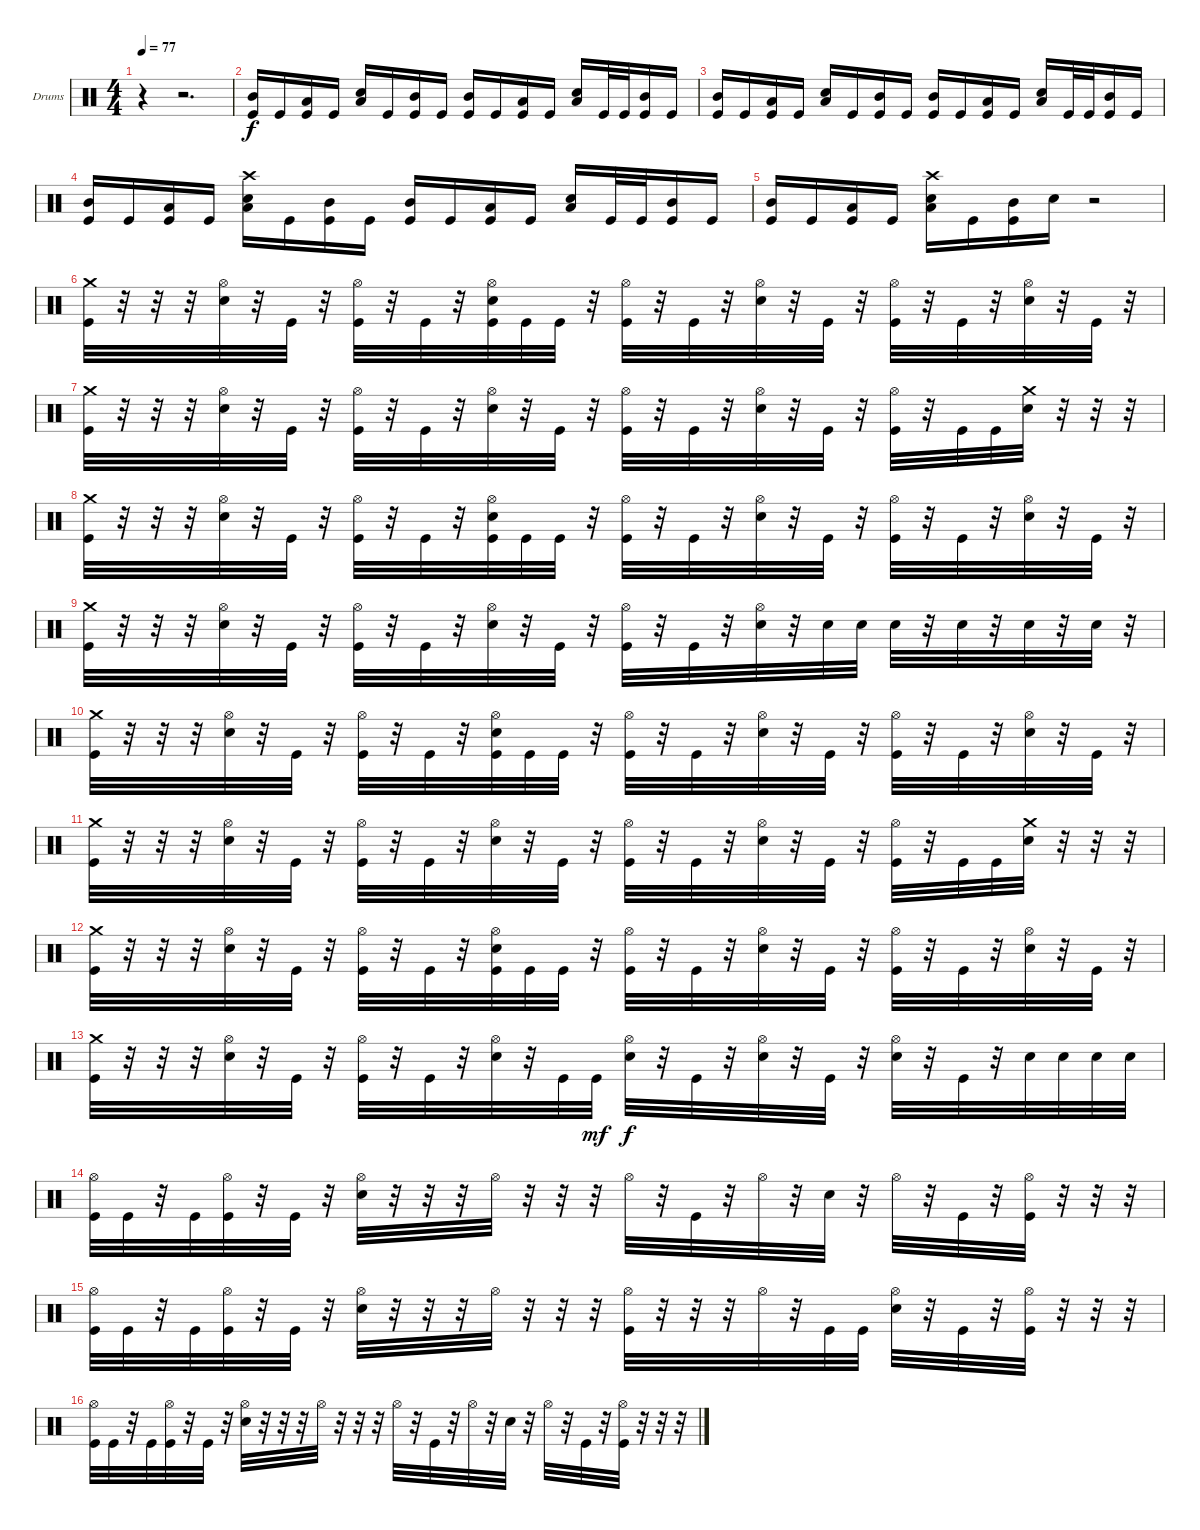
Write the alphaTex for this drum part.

\defaultSystemsLayout 4
\bracketExtendMode groupsimilarinstruments
\firstSystemTrackNameOrientation horizontal
\otherSystemsTrackNameOrientation horizontal
\track ("Drumkit" "Drums") {instrument percussion}
\staff {score}
\articulation defaults
\ts (4 4)
\tempo 77
\clef neutral
\ks c
r.4{dy f} r.2{d} |
("Mid Tom (hit)" "Kick (hit)").16 "Kick (hit)".16 ("Low Tom (hit)" "Kick (hit)").16 "Kick (hit)".16 ("Low Tom (hit)" "Snare (hit) 2").16 "Kick (hit)".16 ("Mid Tom (hit)" "Kick (hit)").16 "Kick (hit)".16 ("Mid Tom (hit)" "Kick (hit)").16 "Kick (hit)".16 ("Low Tom (hit)" "Kick (hit)").16 "Kick (hit)".16 ("Low Tom (hit)" "Snare (hit) 2").16 "Kick (hit)".32 "Kick (hit)".32 ("Mid Tom (hit)" "Kick (hit)").16 "Kick (hit)".16 |
("Mid Tom (hit)" "Kick (hit)").16 "Kick (hit)".16 ("Low Tom (hit)" "Kick (hit)").16 "Kick (hit)".16 ("Low Tom (hit)" "Snare (hit) 2").16 "Kick (hit)".16 ("Mid Tom (hit)" "Kick (hit)").16 "Kick (hit)".16 ("Mid Tom (hit)" "Kick (hit)").16 "Kick (hit)".16 ("Low Tom (hit)" "Kick (hit)").16 "Kick (hit)".16 ("Low Tom (hit)" "Snare (hit) 2").16 "Kick (hit)".32 "Kick (hit)".32 ("Mid Tom (hit)" "Kick (hit)").16 "Kick (hit)".16 |
("Mid Tom (hit)" "Kick (hit)").16 "Kick (hit)".16 ("Low Tom (hit)" "Kick (hit)").16 "Kick (hit)".16 ("Low Tom (hit)" "Snare (hit) 2" "Crash high (hit)").16 "Kick (hit)".16 ("Mid Tom (hit)" "Kick (hit)").16 "Kick (hit)".16 ("Mid Tom (hit)" "Kick (hit)").16 "Kick (hit)".16 ("Low Tom (hit)" "Kick (hit)").16 "Kick (hit)".16 ("Low Tom (hit)" "Snare (hit) 2").16 "Kick (hit)".32 "Kick (hit)".32 ("Mid Tom (hit)" "Kick (hit)").16 "Kick (hit)".16 |
("Mid Tom (hit)" "Kick (hit)").16 "Kick (hit)".16 ("Low Tom (hit)" "Kick (hit)").16 "Kick (hit)".16 ("Low Tom (hit)" "Snare (hit) 2" "Crash high (hit)").16 "Kick (hit)".16 ("Mid Tom (hit)" "Kick (hit)").16 "Snare (hit) 2".16 r.2 |
("Crash medium (hit)" "Kick (hit)").32 r.32 r.32 r.32 ("Hi-Hat (open)" "Snare (hit) 2").32 r.32 "Kick (hit)".32 r.32 ("Hi-Hat (open)" "Kick (hit)").32 r.32 "Kick (hit)".32 r.32 ("Hi-Hat (open)" "Snare (hit) 2" "Kick (hit)").32 "Kick (hit)".32 "Kick (hit)".32 r.32 ("Hi-Hat (open)" "Kick (hit)").32 r.32 "Kick (hit)".32 r.32 ("Hi-Hat (open)" "Snare (hit) 2").32 r.32 "Kick (hit)".32 r.32 ("Hi-Hat (open)" "Kick (hit)").32 r.32 "Kick (hit)".32 r.32 ("Hi-Hat (open)" "Snare (hit) 2").32 r.32 "Kick (hit)".32 r.32 |
("Crash medium (hit)" "Kick (hit)").32 r.32 r.32 r.32 ("Hi-Hat (open)" "Snare (hit) 2").32 r.32 "Kick (hit)".32 r.32 ("Hi-Hat (open)" "Kick (hit)").32 r.32 "Kick (hit)".32 r.32 ("Hi-Hat (open)" "Snare (hit) 2").32 r.32 "Kick (hit)".32 r.32 ("Hi-Hat (open)" "Kick (hit)").32 r.32 "Kick (hit)".32 r.32 ("Hi-Hat (open)" "Snare (hit) 2").32 r.32 "Kick (hit)".32 r.32 ("Hi-Hat (open)" "Kick (hit)").32 r.32 "Kick (hit)".32 "Kick (hit)".32 ("Crash medium (hit)" "Snare (hit) 2").32 r.32 r.32 r.32 |
("Crash medium (hit)" "Kick (hit)").32 r.32 r.32 r.32 ("Hi-Hat (open)" "Snare (hit) 2").32 r.32 "Kick (hit)".32 r.32 ("Hi-Hat (open)" "Kick (hit)").32 r.32 "Kick (hit)".32 r.32 ("Hi-Hat (open)" "Snare (hit) 2" "Kick (hit)").32 "Kick (hit)".32 "Kick (hit)".32 r.32 ("Hi-Hat (open)" "Kick (hit)").32 r.32 "Kick (hit)".32 r.32 ("Hi-Hat (open)" "Snare (hit) 2").32 r.32 "Kick (hit)".32 r.32 ("Hi-Hat (open)" "Kick (hit)").32 r.32 "Kick (hit)".32 r.32 ("Hi-Hat (open)" "Snare (hit) 2").32 r.32 "Kick (hit)".32 r.32 |
("Crash medium (hit)" "Kick (hit)").32 r.32 r.32 r.32 ("Hi-Hat (open)" "Snare (hit) 2").32 r.32 "Kick (hit)".32 r.32 ("Hi-Hat (open)" "Kick (hit)").32 r.32 "Kick (hit)".32 r.32 ("Hi-Hat (open)" "Snare (hit) 2").32 r.32 "Kick (hit)".32 r.32 ("Hi-Hat (open)" "Kick (hit)").32 r.32 "Kick (hit)".32 r.32 ("Hi-Hat (open)" "Snare (hit) 2").32 r.32 "Snare (hit) 2".32 "Snare (hit) 2".32 "Snare (hit) 2".32 r.32 "Snare (hit) 2".32 r.32 "Snare (hit) 2".32 r.32 "Snare (hit) 2".32 r.32 |
("Crash medium (hit)" "Kick (hit)").32 r.32 r.32 r.32 ("Hi-Hat (open)" "Snare (hit) 2").32 r.32 "Kick (hit)".32 r.32 ("Hi-Hat (open)" "Kick (hit)").32 r.32 "Kick (hit)".32 r.32 ("Hi-Hat (open)" "Snare (hit) 2" "Kick (hit)").32 "Kick (hit)".32 "Kick (hit)".32 r.32 ("Hi-Hat (open)" "Kick (hit)").32 r.32 "Kick (hit)".32 r.32 ("Hi-Hat (open)" "Snare (hit) 2").32 r.32 "Kick (hit)".32 r.32 ("Hi-Hat (open)" "Kick (hit)").32 r.32 "Kick (hit)".32 r.32 ("Hi-Hat (open)" "Snare (hit) 2").32 r.32 "Kick (hit)".32 r.32 |
("Crash medium (hit)" "Kick (hit)").32 r.32 r.32 r.32 ("Hi-Hat (open)" "Snare (hit) 2").32 r.32 "Kick (hit)".32 r.32 ("Hi-Hat (open)" "Kick (hit)").32 r.32 "Kick (hit)".32 r.32 ("Hi-Hat (open)" "Snare (hit) 2").32 r.32 "Kick (hit)".32 r.32 ("Hi-Hat (open)" "Kick (hit)").32 r.32 "Kick (hit)".32 r.32 ("Hi-Hat (open)" "Snare (hit) 2").32 r.32 "Kick (hit)".32 r.32 ("Hi-Hat (open)" "Kick (hit)").32 r.32 "Kick (hit)".32 "Kick (hit)".32 ("Crash medium (hit)" "Snare (hit) 2").32 r.32 r.32 r.32 |
("Crash medium (hit)" "Kick (hit)").32 r.32 r.32 r.32 ("Hi-Hat (open)" "Snare (hit) 2").32 r.32 "Kick (hit)".32 r.32 ("Hi-Hat (open)" "Kick (hit)").32 r.32 "Kick (hit)".32 r.32 ("Hi-Hat (open)" "Snare (hit) 2" "Kick (hit)").32 "Kick (hit)".32 "Kick (hit)".32 r.32 ("Hi-Hat (open)" "Kick (hit)").32 r.32 "Kick (hit)".32 r.32 ("Hi-Hat (open)" "Snare (hit) 2").32 r.32 "Kick (hit)".32 r.32 ("Hi-Hat (open)" "Kick (hit)").32 r.32 "Kick (hit)".32 r.32 ("Hi-Hat (open)" "Snare (hit) 2").32 r.32 "Kick (hit)".32 r.32 |
("Crash medium (hit)" "Kick (hit)").32 r.32 r.32 r.32 ("Hi-Hat (open)" "Snare (hit) 2").32 r.32 "Kick (hit)".32 r.32 ("Hi-Hat (open)" "Kick (hit)").32 r.32 "Kick (hit)".32 r.32 ("Hi-Hat (open)" "Snare (hit) 2").32 r.32 "Kick (hit)".32 "Kick (hit)".32{dy mf} ("Hi-Hat (open)" "Snare (hit) 2").32{dy f} r.32 "Kick (hit)".32 r.32 ("Hi-Hat (open)" "Snare (hit) 2").32 r.32 "Kick (hit)".32 r.32 ("Hi-Hat (open)" "Snare (hit) 2").32 r.32 "Kick (hit)".32 r.32 "Snare (hit) 2".32 "Snare (hit) 2".32 "Snare (hit) 2".32 "Snare (hit) 2".32 |
("Hi-Hat (open)" "Kick (hit)").32 "Kick (hit)".32 r.32 "Kick (hit)".32 ("Hi-Hat (open)" "Kick (hit)").32 r.32 "Kick (hit)".32 r.32 ("Hi-Hat (open)" "Snare (hit) 2").32 r.32 r.32 r.32 "Hi-Hat (open)".32 r.32 r.32 r.32 "Hi-Hat (open)".32 r.32 "Kick (hit)".32 r.32 "Hi-Hat (open)".32 r.32 "Snare (hit) 2".32 r.32 "Hi-Hat (open)".32 r.32 "Kick (hit)".32 r.32 ("Hi-Hat (open)" "Kick (hit)").32 r.32 r.32 r.32 |
("Hi-Hat (open)" "Kick (hit)").32 "Kick (hit)".32 r.32 "Kick (hit)".32 ("Hi-Hat (open)" "Kick (hit)").32 r.32 "Kick (hit)".32 r.32 ("Hi-Hat (open)" "Snare (hit) 2").32 r.32 r.32 r.32 "Hi-Hat (open)".32 r.32 r.32 r.32 ("Hi-Hat (open)" "Kick (hit)").32 r.32 r.32 r.32 "Hi-Hat (open)".32 r.32 "Kick (hit)".32 "Kick (hit)".32 ("Hi-Hat (open)" "Snare (hit) 2").32 r.32 "Kick (hit)".32 r.32 ("Hi-Hat (open)" "Kick (hit)").32 r.32 r.32 r.32 |
("Hi-Hat (open)" "Kick (hit)").32 "Kick (hit)".32 r.32 "Kick (hit)".32 ("Hi-Hat (open)" "Kick (hit)").32 r.32 "Kick (hit)".32 r.32 ("Hi-Hat (open)" "Snare (hit) 2").32 r.32 r.32 r.32 "Hi-Hat (open)".32 r.32 r.32 r.32 "Hi-Hat (open)".32 r.32 "Kick (hit)".32 r.32 "Hi-Hat (open)".32 r.32 "Snare (hit) 2".32 r.32 "Hi-Hat (open)".32 r.32 "Kick (hit)".32 r.32 ("Hi-Hat (open)" "Kick (hit)").32 r.32 r.32 r.32
